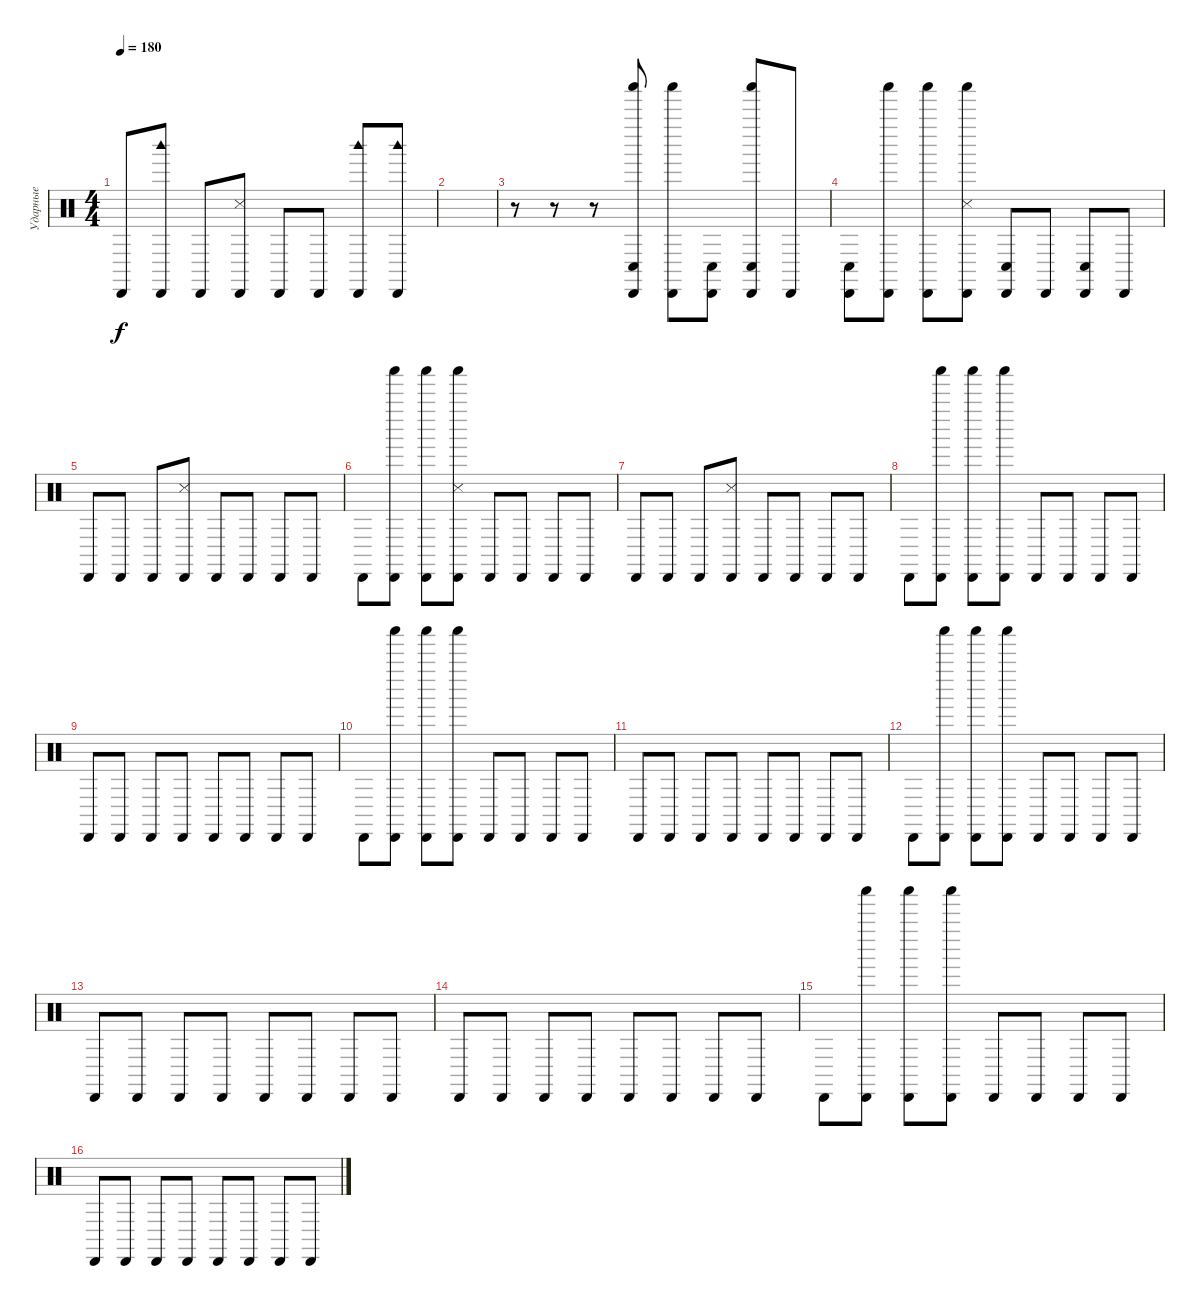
\track ("Ударные" "Ударные") {instrument percussion}
\staff {score}
\articulation defaults
\ts (4 4)
\tempo 180
\clef neutral
\ks c "Cabasa (hit)".8{dy f}
("Woodblock high (hit)" "Cabasa (hit)").8 "Cabasa (hit)".8 ("Cabasa (hit)" "Snare (side stick) 3").8 "Cabasa (hit)".8 "Cabasa (hit)".8 ("Woodblock high (hit)" "Cabasa (hit)").8 ("Woodblock high (hit)" "Cabasa (hit)").8 |
|
r.8 r.8 r.8 ("Shaker (hit)" "Cabasa (hit)" "Conga low (hit)").8 ("Shaker (hit)" "Cabasa (hit)").8 ("Cabasa (hit)" "Conga low (hit)").8 ("Shaker (hit)" "Cabasa (hit)" "Conga low (hit)").8 "Cabasa (hit)".8 |
("Cabasa (hit)" "Conga low (hit)").8 ("Shaker (hit)" "Cabasa (hit)").8 ("Shaker (hit)" "Cabasa (hit)").8 ("Shaker (hit)" "Cabasa (hit)" "Snare (side stick) 3").8 ("Cabasa (hit)" "Conga low (hit)").8 "Cabasa (hit)".8 ("Cabasa (hit)" "Conga low (hit)").8 "Cabasa (hit)".8 |
"Cabasa (hit)".8 "Cabasa (hit)".8 "Cabasa (hit)".8 ("Cabasa (hit)" "Snare (side stick) 3").8 "Cabasa (hit)".8 "Cabasa (hit)".8 "Cabasa (hit)".8 "Cabasa (hit)".8 |
"Cabasa (hit)".8 ("Shaker (hit)" "Cabasa (hit)").8 ("Shaker (hit)" "Cabasa (hit)").8 ("Shaker (hit)" "Cabasa (hit)" "Snare (side stick) 3").8 "Cabasa (hit)".8 "Cabasa (hit)".8 "Cabasa (hit)".8 "Cabasa (hit)".8 |
"Cabasa (hit)".8 "Cabasa (hit)".8 "Cabasa (hit)".8 ("Cabasa (hit)" "Snare (side stick) 3").8 "Cabasa (hit)".8 "Cabasa (hit)".8 "Cabasa (hit)".8 "Cabasa (hit)".8 |
"Cabasa (hit)".8 ("Shaker (hit)" "Cabasa (hit)").8 ("Shaker (hit)" "Cabasa (hit)").8 ("Shaker (hit)" "Cabasa (hit)").8 "Cabasa (hit)".8 "Cabasa (hit)".8 "Cabasa (hit)".8 "Cabasa (hit)".8 |
"Cabasa (hit)".8 "Cabasa (hit)".8 "Cabasa (hit)".8 "Cabasa (hit)".8 "Cabasa (hit)".8 "Cabasa (hit)".8 "Cabasa (hit)".8 "Cabasa (hit)".8 |
"Cabasa (hit)".8 ("Shaker (hit)" "Cabasa (hit)").8 ("Shaker (hit)" "Cabasa (hit)").8 ("Shaker (hit)" "Cabasa (hit)").8 "Cabasa (hit)".8 "Cabasa (hit)".8 "Cabasa (hit)".8 "Cabasa (hit)".8 |
"Cabasa (hit)".8 "Cabasa (hit)".8 "Cabasa (hit)".8 "Cabasa (hit)".8 "Cabasa (hit)".8 "Cabasa (hit)".8 "Cabasa (hit)".8 "Cabasa (hit)".8 |
"Cabasa (hit)".8 ("Shaker (hit)" "Cabasa (hit)").8 ("Shaker (hit)" "Cabasa (hit)").8 ("Shaker (hit)" "Cabasa (hit)").8 "Cabasa (hit)".8 "Cabasa (hit)".8 "Cabasa (hit)".8 "Cabasa (hit)".8 |
"Cabasa (hit)".8 "Cabasa (hit)".8 "Cabasa (hit)".8 "Cabasa (hit)".8 "Cabasa (hit)".8 "Cabasa (hit)".8 "Cabasa (hit)".8 "Cabasa (hit)".8 |
"Cabasa (hit)".8 "Cabasa (hit)".8 "Cabasa (hit)".8 "Cabasa (hit)".8 "Cabasa (hit)".8 "Cabasa (hit)".8 "Cabasa (hit)".8 "Cabasa (hit)".8 |
"Cabasa (hit)".8 ("Shaker (hit)" "Cabasa (hit)").8 ("Shaker (hit)" "Cabasa (hit)").8 ("Shaker (hit)" "Cabasa (hit)").8 "Cabasa (hit)".8 "Cabasa (hit)".8 "Cabasa (hit)".8 "Cabasa (hit)".8 |
"Cabasa (hit)".8 "Cabasa (hit)".8 "Cabasa (hit)".8 "Cabasa (hit)".8 "Cabasa (hit)".8 "Cabasa (hit)".8 "Cabasa (hit)".8 "Cabasa (hit)".8
